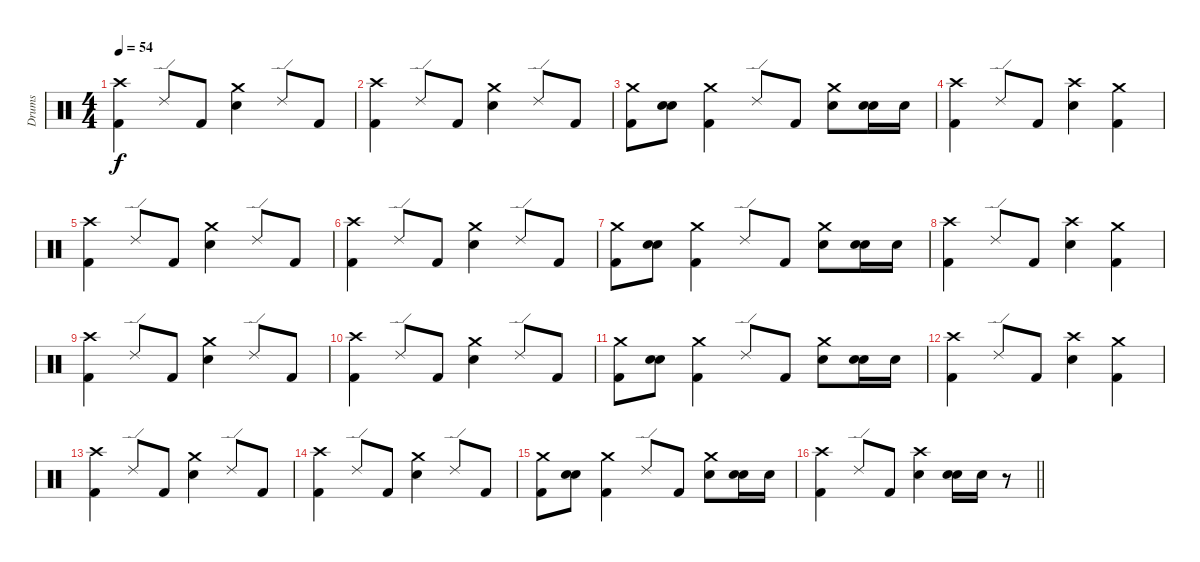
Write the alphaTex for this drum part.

\track ("Drums" "Drums") {instrument percussion}
\staff {score}
\articulation defaults
\ts (4 4)
\tempo 54
\clef neutral
\ks c
("Crash high (hit)" "Kick (hit) 2").4{dy f} "Ride (edge) 2".8 "Kick (hit) 2".8 ("Crash medium (hit)" "Electric Snare (hit)").4 "Ride (edge) 2".8 "Kick (hit) 2".8 |
("Crash high (hit)" "Kick (hit) 2").4 "Ride (edge) 2".8 "Kick (hit) 2".8 ("Crash medium (hit)" "Electric Snare (hit)").4 "Ride (edge) 2".8 "Kick (hit) 2".8 |
("Crash medium (hit)" "Kick (hit) 2").8 ("Electric Snare (hit)" "Electric Snare (hit)").8{bu 60} ("Crash medium (hit)" "Kick (hit) 2").4 "Ride (edge) 2".8 "Kick (hit) 2".8 ("Crash medium (hit)" "Electric Snare (hit)").8 ("Electric Snare (hit)" "Electric Snare (hit)").16{bu 60} "Electric Snare (hit)".16 |
("Crash high (hit)" "Kick (hit) 2").4 "Ride (edge) 2".8 "Kick (hit) 2".8 ("Crash high (hit)" "Electric Snare (hit)").4 ("Crash medium (hit)" "Kick (hit) 2").4 |
("Crash high (hit)" "Kick (hit) 2").4 "Ride (edge) 2".8 "Kick (hit) 2".8 ("Crash medium (hit)" "Electric Snare (hit)").4 "Ride (edge) 2".8 "Kick (hit) 2".8 |
("Crash high (hit)" "Kick (hit) 2").4 "Ride (edge) 2".8 "Kick (hit) 2".8 ("Crash medium (hit)" "Electric Snare (hit)").4 "Ride (edge) 2".8 "Kick (hit) 2".8 |
("Crash medium (hit)" "Kick (hit) 2").8 ("Electric Snare (hit)" "Electric Snare (hit)").8{bu 60} ("Crash medium (hit)" "Kick (hit) 2").4 "Ride (edge) 2".8 "Kick (hit) 2".8 ("Crash medium (hit)" "Electric Snare (hit)").8 ("Electric Snare (hit)" "Electric Snare (hit)").16{bu 60} "Electric Snare (hit)".16 |
("Crash high (hit)" "Kick (hit) 2").4 "Ride (edge) 2".8 "Kick (hit) 2".8 ("Crash high (hit)" "Electric Snare (hit)").4 ("Crash medium (hit)" "Kick (hit) 2").4 |
("Crash high (hit)" "Kick (hit) 2").4 "Ride (edge) 2".8 "Kick (hit) 2".8 ("Crash medium (hit)" "Electric Snare (hit)").4 "Ride (edge) 2".8 "Kick (hit) 2".8 |
("Crash high (hit)" "Kick (hit) 2").4 "Ride (edge) 2".8 "Kick (hit) 2".8 ("Crash medium (hit)" "Electric Snare (hit)").4 "Ride (edge) 2".8 "Kick (hit) 2".8 |
("Crash medium (hit)" "Kick (hit) 2").8 ("Electric Snare (hit)" "Electric Snare (hit)").8{bu 60} ("Crash medium (hit)" "Kick (hit) 2").4 "Ride (edge) 2".8 "Kick (hit) 2".8 ("Crash medium (hit)" "Electric Snare (hit)").8 ("Electric Snare (hit)" "Electric Snare (hit)").16{bu 60} "Electric Snare (hit)".16 |
("Crash high (hit)" "Kick (hit) 2").4 "Ride (edge) 2".8 "Kick (hit) 2".8 ("Crash high (hit)" "Electric Snare (hit)").4 ("Crash medium (hit)" "Kick (hit) 2").4 |
("Crash high (hit)" "Kick (hit) 2").4 "Ride (edge) 2".8 "Kick (hit) 2".8 ("Crash medium (hit)" "Electric Snare (hit)").4 "Ride (edge) 2".8 "Kick (hit) 2".8 |
("Crash high (hit)" "Kick (hit) 2").4 "Ride (edge) 2".8 "Kick (hit) 2".8 ("Crash medium (hit)" "Electric Snare (hit)").4 "Ride (edge) 2".8 "Kick (hit) 2".8 |
("Crash medium (hit)" "Kick (hit) 2").8 ("Electric Snare (hit)" "Electric Snare (hit)").8{bu 60} ("Crash medium (hit)" "Kick (hit) 2").4 "Ride (edge) 2".8 "Kick (hit) 2".8 ("Crash medium (hit)" "Electric Snare (hit)").8 ("Electric Snare (hit)" "Electric Snare (hit)").16{bu 60} "Electric Snare (hit)".16 |
\barLineRight lightlight
("Crash high (hit)" "Kick (hit) 2").4 "Ride (edge) 2".8 "Kick (hit) 2".8 ("Crash high (hit)" "Electric Snare (hit)").4 ("Electric Snare (hit)" "Electric Snare (hit)").16{bu 60} "Electric Snare (hit)".16 r.8
